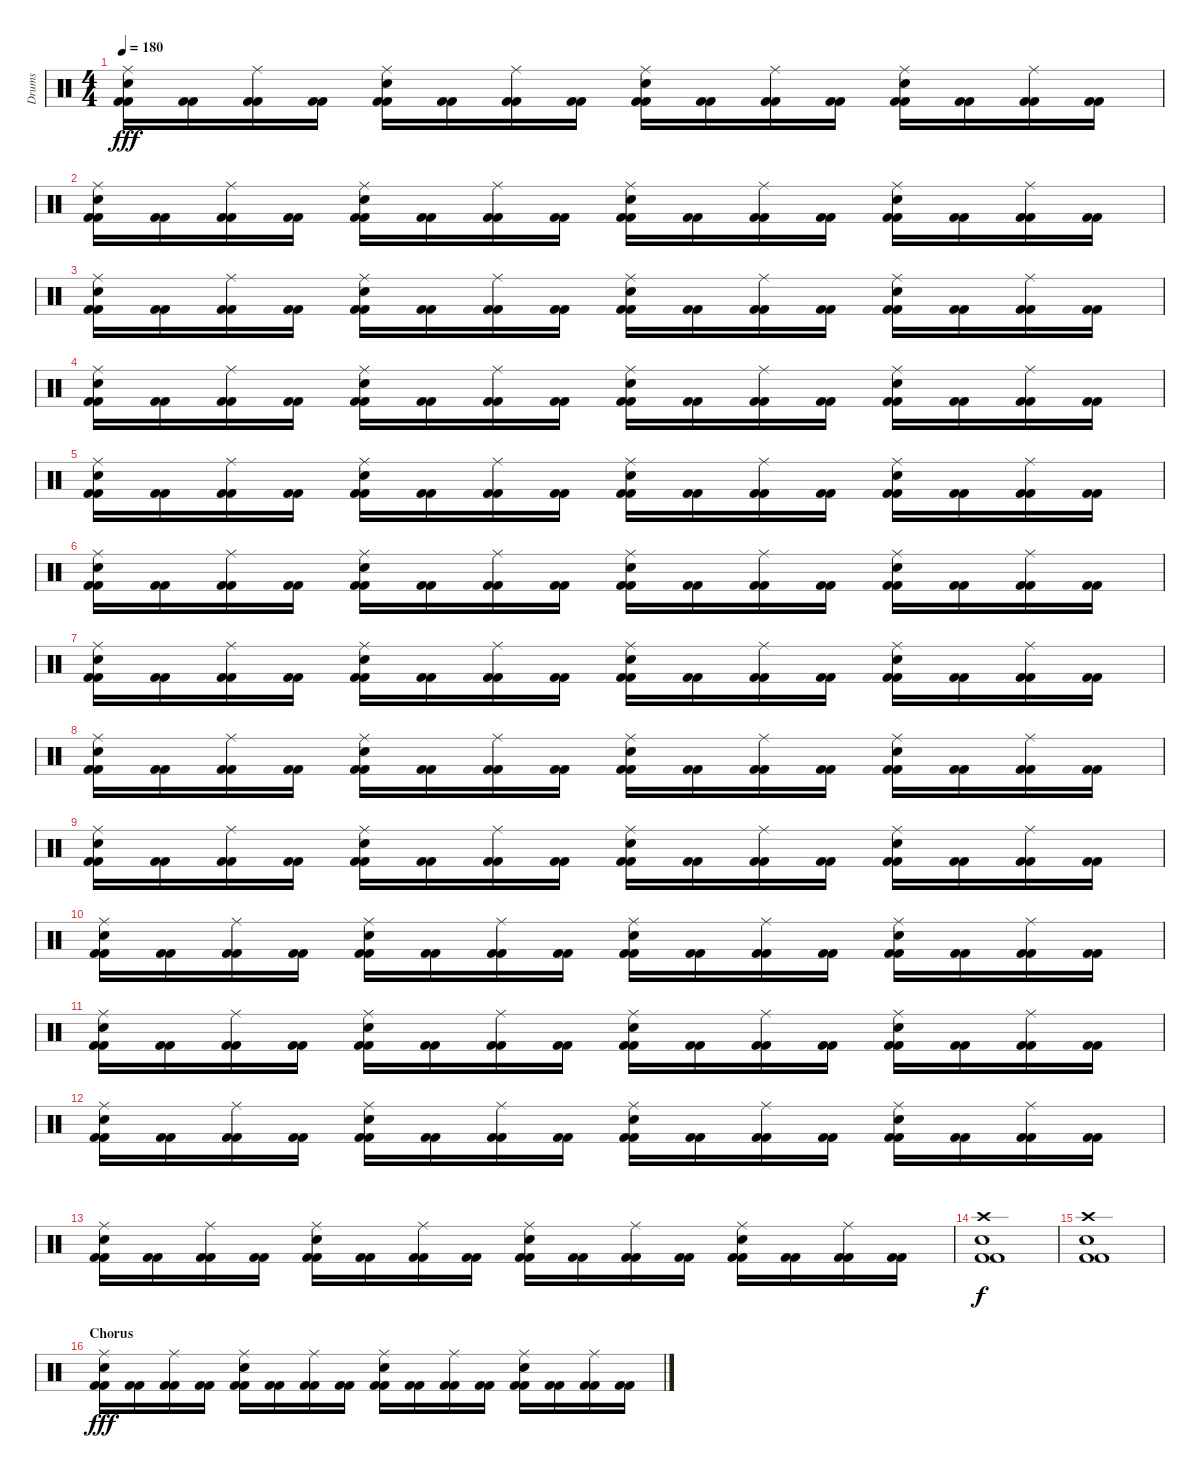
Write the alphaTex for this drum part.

\track ("Drums" "Drums") {instrument percussion}
\staff {score}
\articulation defaults
\ts (4 4)
\tempo 180
\clef neutral
\ks c
("Kick (hit) 2" "Kick (hit) 2" "Electric Snare (hit)" "Ride (middle)").16{dy fff} ("Kick (hit) 2" "Kick (hit) 2").16 ("Kick (hit) 2" "Kick (hit) 2" "Ride (middle)").16 ("Kick (hit) 2" "Kick (hit) 2").16 ("Kick (hit) 2" "Kick (hit) 2" "Electric Snare (hit)" "Ride (middle)").16 ("Kick (hit) 2" "Kick (hit) 2").16 ("Kick (hit) 2" "Kick (hit) 2" "Ride (middle)").16 ("Kick (hit) 2" "Kick (hit) 2").16 ("Kick (hit) 2" "Kick (hit) 2" "Electric Snare (hit)" "Ride (middle)").16 ("Kick (hit) 2" "Kick (hit) 2").16 ("Kick (hit) 2" "Kick (hit) 2" "Ride (middle)").16 ("Kick (hit) 2" "Kick (hit) 2").16 ("Kick (hit) 2" "Kick (hit) 2" "Electric Snare (hit)" "Ride (middle)").16 ("Kick (hit) 2" "Kick (hit) 2").16 ("Kick (hit) 2" "Kick (hit) 2" "Ride (middle)").16 ("Kick (hit) 2" "Kick (hit) 2").16 |
("Kick (hit) 2" "Kick (hit) 2" "Electric Snare (hit)" "Ride (middle)").16 ("Kick (hit) 2" "Kick (hit) 2").16 ("Kick (hit) 2" "Kick (hit) 2" "Ride (middle)").16 ("Kick (hit) 2" "Kick (hit) 2").16 ("Kick (hit) 2" "Kick (hit) 2" "Electric Snare (hit)" "Ride (middle)").16 ("Kick (hit) 2" "Kick (hit) 2").16 ("Kick (hit) 2" "Kick (hit) 2" "Ride (middle)").16 ("Kick (hit) 2" "Kick (hit) 2").16 ("Kick (hit) 2" "Kick (hit) 2" "Electric Snare (hit)" "Ride (middle)").16 ("Kick (hit) 2" "Kick (hit) 2").16 ("Kick (hit) 2" "Kick (hit) 2" "Ride (middle)").16 ("Kick (hit) 2" "Kick (hit) 2").16 ("Kick (hit) 2" "Kick (hit) 2" "Electric Snare (hit)" "Ride (middle)").16 ("Kick (hit) 2" "Kick (hit) 2").16 ("Kick (hit) 2" "Kick (hit) 2" "Ride (middle)").16 ("Kick (hit) 2" "Kick (hit) 2").16 |
("Kick (hit) 2" "Kick (hit) 2" "Electric Snare (hit)" "Ride (middle)").16 ("Kick (hit) 2" "Kick (hit) 2").16 ("Kick (hit) 2" "Kick (hit) 2" "Ride (middle)").16 ("Kick (hit) 2" "Kick (hit) 2").16 ("Kick (hit) 2" "Kick (hit) 2" "Electric Snare (hit)" "Ride (middle)").16 ("Kick (hit) 2" "Kick (hit) 2").16 ("Kick (hit) 2" "Kick (hit) 2" "Ride (middle)").16 ("Kick (hit) 2" "Kick (hit) 2").16 ("Kick (hit) 2" "Kick (hit) 2" "Electric Snare (hit)" "Ride (middle)").16 ("Kick (hit) 2" "Kick (hit) 2").16 ("Kick (hit) 2" "Kick (hit) 2" "Ride (middle)").16 ("Kick (hit) 2" "Kick (hit) 2").16 ("Kick (hit) 2" "Kick (hit) 2" "Electric Snare (hit)" "Ride (middle)").16 ("Kick (hit) 2" "Kick (hit) 2").16 ("Kick (hit) 2" "Kick (hit) 2" "Ride (middle)").16 ("Kick (hit) 2" "Kick (hit) 2").16 |
("Kick (hit) 2" "Kick (hit) 2" "Electric Snare (hit)" "Ride (middle)").16 ("Kick (hit) 2" "Kick (hit) 2").16 ("Kick (hit) 2" "Kick (hit) 2" "Ride (middle)").16 ("Kick (hit) 2" "Kick (hit) 2").16 ("Kick (hit) 2" "Kick (hit) 2" "Electric Snare (hit)" "Ride (middle)").16 ("Kick (hit) 2" "Kick (hit) 2").16 ("Kick (hit) 2" "Kick (hit) 2" "Ride (middle)").16 ("Kick (hit) 2" "Kick (hit) 2").16 ("Kick (hit) 2" "Kick (hit) 2" "Electric Snare (hit)" "Ride (middle)").16 ("Kick (hit) 2" "Kick (hit) 2").16 ("Kick (hit) 2" "Kick (hit) 2" "Ride (middle)").16 ("Kick (hit) 2" "Kick (hit) 2").16 ("Kick (hit) 2" "Kick (hit) 2" "Electric Snare (hit)" "Ride (middle)").16 ("Kick (hit) 2" "Kick (hit) 2").16 ("Kick (hit) 2" "Kick (hit) 2" "Ride (middle)").16 ("Kick (hit) 2" "Kick (hit) 2").16 |
("Kick (hit) 2" "Kick (hit) 2" "Electric Snare (hit)" "Ride (middle)").16 ("Kick (hit) 2" "Kick (hit) 2").16 ("Kick (hit) 2" "Kick (hit) 2" "Ride (middle)").16 ("Kick (hit) 2" "Kick (hit) 2").16 ("Kick (hit) 2" "Kick (hit) 2" "Electric Snare (hit)" "Ride (middle)").16 ("Kick (hit) 2" "Kick (hit) 2").16 ("Kick (hit) 2" "Kick (hit) 2" "Ride (middle)").16 ("Kick (hit) 2" "Kick (hit) 2").16 ("Kick (hit) 2" "Kick (hit) 2" "Electric Snare (hit)" "Ride (middle)").16 ("Kick (hit) 2" "Kick (hit) 2").16 ("Kick (hit) 2" "Kick (hit) 2" "Ride (middle)").16 ("Kick (hit) 2" "Kick (hit) 2").16 ("Kick (hit) 2" "Kick (hit) 2" "Electric Snare (hit)" "Ride (middle)").16 ("Kick (hit) 2" "Kick (hit) 2").16 ("Kick (hit) 2" "Kick (hit) 2" "Ride (middle)").16 ("Kick (hit) 2" "Kick (hit) 2").16 |
("Kick (hit) 2" "Kick (hit) 2" "Electric Snare (hit)" "Ride (middle)").16 ("Kick (hit) 2" "Kick (hit) 2").16 ("Kick (hit) 2" "Kick (hit) 2" "Ride (middle)").16 ("Kick (hit) 2" "Kick (hit) 2").16 ("Kick (hit) 2" "Kick (hit) 2" "Electric Snare (hit)" "Ride (middle)").16 ("Kick (hit) 2" "Kick (hit) 2").16 ("Kick (hit) 2" "Kick (hit) 2" "Ride (middle)").16 ("Kick (hit) 2" "Kick (hit) 2").16 ("Kick (hit) 2" "Kick (hit) 2" "Electric Snare (hit)" "Ride (middle)").16 ("Kick (hit) 2" "Kick (hit) 2").16 ("Kick (hit) 2" "Kick (hit) 2" "Ride (middle)").16 ("Kick (hit) 2" "Kick (hit) 2").16 ("Kick (hit) 2" "Kick (hit) 2" "Electric Snare (hit)" "Ride (middle)").16 ("Kick (hit) 2" "Kick (hit) 2").16 ("Kick (hit) 2" "Kick (hit) 2" "Ride (middle)").16 ("Kick (hit) 2" "Kick (hit) 2").16 |
("Kick (hit) 2" "Kick (hit) 2" "Electric Snare (hit)" "Ride (middle)").16 ("Kick (hit) 2" "Kick (hit) 2").16 ("Kick (hit) 2" "Kick (hit) 2" "Ride (middle)").16 ("Kick (hit) 2" "Kick (hit) 2").16 ("Kick (hit) 2" "Kick (hit) 2" "Electric Snare (hit)" "Ride (middle)").16 ("Kick (hit) 2" "Kick (hit) 2").16 ("Kick (hit) 2" "Kick (hit) 2" "Ride (middle)").16 ("Kick (hit) 2" "Kick (hit) 2").16 ("Kick (hit) 2" "Kick (hit) 2" "Electric Snare (hit)" "Ride (middle)").16 ("Kick (hit) 2" "Kick (hit) 2").16 ("Kick (hit) 2" "Kick (hit) 2" "Ride (middle)").16 ("Kick (hit) 2" "Kick (hit) 2").16 ("Kick (hit) 2" "Kick (hit) 2" "Electric Snare (hit)" "Ride (middle)").16 ("Kick (hit) 2" "Kick (hit) 2").16 ("Kick (hit) 2" "Kick (hit) 2" "Ride (middle)").16 ("Kick (hit) 2" "Kick (hit) 2").16 |
("Kick (hit) 2" "Kick (hit) 2" "Electric Snare (hit)" "Ride (middle)").16 ("Kick (hit) 2" "Kick (hit) 2").16 ("Kick (hit) 2" "Kick (hit) 2" "Ride (middle)").16 ("Kick (hit) 2" "Kick (hit) 2").16 ("Kick (hit) 2" "Kick (hit) 2" "Electric Snare (hit)" "Ride (middle)").16 ("Kick (hit) 2" "Kick (hit) 2").16 ("Kick (hit) 2" "Kick (hit) 2" "Ride (middle)").16 ("Kick (hit) 2" "Kick (hit) 2").16 ("Kick (hit) 2" "Kick (hit) 2" "Electric Snare (hit)" "Ride (middle)").16 ("Kick (hit) 2" "Kick (hit) 2").16 ("Kick (hit) 2" "Kick (hit) 2" "Ride (middle)").16 ("Kick (hit) 2" "Kick (hit) 2").16 ("Kick (hit) 2" "Kick (hit) 2" "Electric Snare (hit)" "Ride (middle)").16 ("Kick (hit) 2" "Kick (hit) 2").16 ("Kick (hit) 2" "Kick (hit) 2" "Ride (middle)").16 ("Kick (hit) 2" "Kick (hit) 2").16 |
("Kick (hit) 2" "Kick (hit) 2" "Electric Snare (hit)" "Ride (middle)").16 ("Kick (hit) 2" "Kick (hit) 2").16 ("Kick (hit) 2" "Kick (hit) 2" "Ride (middle)").16 ("Kick (hit) 2" "Kick (hit) 2").16 ("Kick (hit) 2" "Kick (hit) 2" "Electric Snare (hit)" "Ride (middle)").16 ("Kick (hit) 2" "Kick (hit) 2").16 ("Kick (hit) 2" "Kick (hit) 2" "Ride (middle)").16 ("Kick (hit) 2" "Kick (hit) 2").16 ("Kick (hit) 2" "Kick (hit) 2" "Electric Snare (hit)" "Ride (middle)").16 ("Kick (hit) 2" "Kick (hit) 2").16 ("Kick (hit) 2" "Kick (hit) 2" "Ride (middle)").16 ("Kick (hit) 2" "Kick (hit) 2").16 ("Kick (hit) 2" "Kick (hit) 2" "Electric Snare (hit)" "Ride (middle)").16 ("Kick (hit) 2" "Kick (hit) 2").16 ("Kick (hit) 2" "Kick (hit) 2" "Ride (middle)").16 ("Kick (hit) 2" "Kick (hit) 2").16 |
("Kick (hit) 2" "Kick (hit) 2" "Electric Snare (hit)" "Ride (middle)").16 ("Kick (hit) 2" "Kick (hit) 2").16 ("Kick (hit) 2" "Kick (hit) 2" "Ride (middle)").16 ("Kick (hit) 2" "Kick (hit) 2").16 ("Kick (hit) 2" "Kick (hit) 2" "Electric Snare (hit)" "Ride (middle)").16 ("Kick (hit) 2" "Kick (hit) 2").16 ("Kick (hit) 2" "Kick (hit) 2" "Ride (middle)").16 ("Kick (hit) 2" "Kick (hit) 2").16 ("Kick (hit) 2" "Kick (hit) 2" "Electric Snare (hit)" "Ride (middle)").16 ("Kick (hit) 2" "Kick (hit) 2").16 ("Kick (hit) 2" "Kick (hit) 2" "Ride (middle)").16 ("Kick (hit) 2" "Kick (hit) 2").16 ("Kick (hit) 2" "Kick (hit) 2" "Electric Snare (hit)" "Ride (middle)").16 ("Kick (hit) 2" "Kick (hit) 2").16 ("Kick (hit) 2" "Kick (hit) 2" "Ride (middle)").16 ("Kick (hit) 2" "Kick (hit) 2").16 |
("Kick (hit) 2" "Kick (hit) 2" "Electric Snare (hit)" "Ride (middle)").16 ("Kick (hit) 2" "Kick (hit) 2").16 ("Kick (hit) 2" "Kick (hit) 2" "Ride (middle)").16 ("Kick (hit) 2" "Kick (hit) 2").16 ("Kick (hit) 2" "Kick (hit) 2" "Electric Snare (hit)" "Ride (middle)").16 ("Kick (hit) 2" "Kick (hit) 2").16 ("Kick (hit) 2" "Kick (hit) 2" "Ride (middle)").16 ("Kick (hit) 2" "Kick (hit) 2").16 ("Kick (hit) 2" "Kick (hit) 2" "Electric Snare (hit)" "Ride (middle)").16 ("Kick (hit) 2" "Kick (hit) 2").16 ("Kick (hit) 2" "Kick (hit) 2" "Ride (middle)").16 ("Kick (hit) 2" "Kick (hit) 2").16 ("Kick (hit) 2" "Kick (hit) 2" "Electric Snare (hit)" "Ride (middle)").16 ("Kick (hit) 2" "Kick (hit) 2").16 ("Kick (hit) 2" "Kick (hit) 2" "Ride (middle)").16 ("Kick (hit) 2" "Kick (hit) 2").16 |
("Kick (hit) 2" "Kick (hit) 2" "Electric Snare (hit)" "Ride (middle)").16 ("Kick (hit) 2" "Kick (hit) 2").16 ("Kick (hit) 2" "Kick (hit) 2" "Ride (middle)").16 ("Kick (hit) 2" "Kick (hit) 2").16 ("Kick (hit) 2" "Kick (hit) 2" "Electric Snare (hit)" "Ride (middle)").16 ("Kick (hit) 2" "Kick (hit) 2").16 ("Kick (hit) 2" "Kick (hit) 2" "Ride (middle)").16 ("Kick (hit) 2" "Kick (hit) 2").16 ("Kick (hit) 2" "Kick (hit) 2" "Electric Snare (hit)" "Ride (middle)").16 ("Kick (hit) 2" "Kick (hit) 2").16 ("Kick (hit) 2" "Kick (hit) 2" "Ride (middle)").16 ("Kick (hit) 2" "Kick (hit) 2").16 ("Kick (hit) 2" "Kick (hit) 2" "Electric Snare (hit)" "Ride (middle)").16 ("Kick (hit) 2" "Kick (hit) 2").16 ("Kick (hit) 2" "Kick (hit) 2" "Ride (middle)").16 ("Kick (hit) 2" "Kick (hit) 2").16 |
("Kick (hit) 2" "Kick (hit) 2" "Electric Snare (hit)" "Ride (middle)").16 ("Kick (hit) 2" "Kick (hit) 2").16 ("Kick (hit) 2" "Kick (hit) 2" "Ride (middle)").16 ("Kick (hit) 2" "Kick (hit) 2").16 ("Kick (hit) 2" "Kick (hit) 2" "Electric Snare (hit)" "Ride (middle)").16 ("Kick (hit) 2" "Kick (hit) 2").16 ("Kick (hit) 2" "Kick (hit) 2" "Ride (middle)").16 ("Kick (hit) 2" "Kick (hit) 2").16 ("Kick (hit) 2" "Kick (hit) 2" "Electric Snare (hit)" "Ride (middle)").16 ("Kick (hit) 2" "Kick (hit) 2").16 ("Kick (hit) 2" "Kick (hit) 2" "Ride (middle)").16 ("Kick (hit) 2" "Kick (hit) 2").16 ("Kick (hit) 2" "Kick (hit) 2" "Electric Snare (hit)" "Ride (middle)").16 ("Kick (hit) 2" "Kick (hit) 2").16 ("Kick (hit) 2" "Kick (hit) 2" "Ride (middle)").16 ("Kick (hit) 2" "Kick (hit) 2").16 |
("Crash high (hit)" "Snare (hit) 2" "Kick (hit) 2" "Kick (hit) 2").1{dy f} |
("Crash high (hit)" "Snare (hit) 2" "Kick (hit) 2" "Kick (hit) 2").1 |
\section ("" "Chorus")
("Kick (hit) 2" "Kick (hit) 2" "Electric Snare (hit)" "Ride (middle)").16{dy fff} ("Kick (hit) 2" "Kick (hit) 2").16 ("Kick (hit) 2" "Kick (hit) 2" "Ride (middle)").16 ("Kick (hit) 2" "Kick (hit) 2").16 ("Kick (hit) 2" "Kick (hit) 2" "Electric Snare (hit)" "Ride (middle)").16 ("Kick (hit) 2" "Kick (hit) 2").16 ("Kick (hit) 2" "Kick (hit) 2" "Ride (middle)").16 ("Kick (hit) 2" "Kick (hit) 2").16 ("Kick (hit) 2" "Kick (hit) 2" "Electric Snare (hit)" "Ride (middle)").16 ("Kick (hit) 2" "Kick (hit) 2").16 ("Kick (hit) 2" "Kick (hit) 2" "Ride (middle)").16 ("Kick (hit) 2" "Kick (hit) 2").16 ("Kick (hit) 2" "Kick (hit) 2" "Electric Snare (hit)" "Ride (middle)").16 ("Kick (hit) 2" "Kick (hit) 2").16 ("Kick (hit) 2" "Kick (hit) 2" "Ride (middle)").16 ("Kick (hit) 2" "Kick (hit) 2").16
